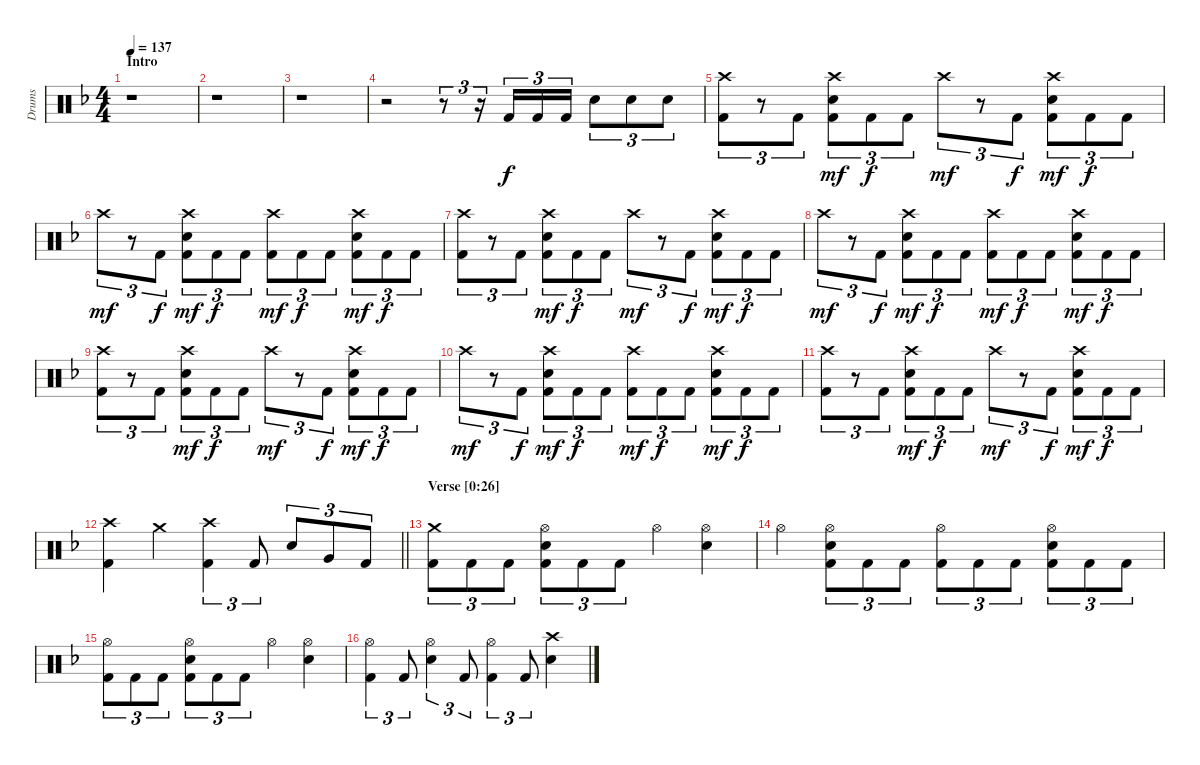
\track ("Drums" "Drums") {instrument percussion}
\staff {score}
\articulation defaults
\ts (4 4)
\section ("" "Intro")
\tempo 137
\clef neutral
\ks dminor
r.1{dy f} |
r.1 |
r.1 |
r.2 r.8{tu (3 2)} r.16{tu (3 2)} "Kick (hit) 2".16{tu (3 2)} "Kick (hit) 2".16{tu (3 2)} "Kick (hit) 2".16{tu (3 2)} "Snare (hit) 2".8{tu (3 2)} "Snare (hit) 2".8{tu (3 2)} "Snare (hit) 2".8{tu (3 2)} |
("Crash high (hit)" "Kick (hit) 2").8{tu (3 2)} r.8{tu (3 2)} "Kick (hit) 2".8{tu (3 2)} ("Crash high (hit)" "Snare (hit) 2" "Kick (hit) 2").8{tu (3 2) dy mf} "Kick (hit) 2".8{tu (3 2) dy f} "Kick (hit) 2".8{tu (3 2)} "Crash high (hit)".8{tu (3 2) dy mf} r.8{tu (3 2)} "Kick (hit) 2".8{tu (3 2) dy f} ("Crash high (hit)" "Snare (hit) 2" "Kick (hit) 2").8{tu (3 2) dy mf} "Kick (hit) 2".8{tu (3 2) dy f} "Kick (hit) 2".8{tu (3 2)} |
"Crash high (hit)".8{tu (3 2) dy mf} r.8{tu (3 2)} "Kick (hit) 2".8{tu (3 2) dy f} ("Crash high (hit)" "Snare (hit) 2" "Kick (hit) 2").8{tu (3 2) dy mf} "Kick (hit) 2".8{tu (3 2) dy f} "Kick (hit) 2".8{tu (3 2)} ("Crash high (hit)" "Kick (hit) 2").8{tu (3 2) dy mf} "Kick (hit) 2".8{tu (3 2) dy f} "Kick (hit) 2".8{tu (3 2)} ("Crash high (hit)" "Snare (hit) 2" "Kick (hit) 2").8{tu (3 2) dy mf} "Kick (hit) 2".8{tu (3 2) dy f} "Kick (hit) 2".8{tu (3 2)} |
("Crash high (hit)" "Kick (hit) 2").8{tu (3 2)} r.8{tu (3 2)} "Kick (hit) 2".8{tu (3 2)} ("Crash high (hit)" "Snare (hit) 2" "Kick (hit) 2").8{tu (3 2) dy mf} "Kick (hit) 2".8{tu (3 2) dy f} "Kick (hit) 2".8{tu (3 2)} "Crash high (hit)".8{tu (3 2) dy mf} r.8{tu (3 2)} "Kick (hit) 2".8{tu (3 2) dy f} ("Crash high (hit)" "Snare (hit) 2" "Kick (hit) 2").8{tu (3 2) dy mf} "Kick (hit) 2".8{tu (3 2) dy f} "Kick (hit) 2".8{tu (3 2)} |
"Crash high (hit)".8{tu (3 2) dy mf} r.8{tu (3 2)} "Kick (hit) 2".8{tu (3 2) dy f} ("Crash high (hit)" "Snare (hit) 2" "Kick (hit) 2").8{tu (3 2) dy mf} "Kick (hit) 2".8{tu (3 2) dy f} "Kick (hit) 2".8{tu (3 2)} ("Crash high (hit)" "Kick (hit) 2").8{tu (3 2) dy mf} "Kick (hit) 2".8{tu (3 2) dy f} "Kick (hit) 2".8{tu (3 2)} ("Crash high (hit)" "Snare (hit) 2" "Kick (hit) 2").8{tu (3 2) dy mf} "Kick (hit) 2".8{tu (3 2) dy f} "Kick (hit) 2".8{tu (3 2)} |
("Crash high (hit)" "Kick (hit) 2").8{tu (3 2)} r.8{tu (3 2)} "Kick (hit) 2".8{tu (3 2)} ("Crash high (hit)" "Snare (hit) 2" "Kick (hit) 2").8{tu (3 2) dy mf} "Kick (hit) 2".8{tu (3 2) dy f} "Kick (hit) 2".8{tu (3 2)} "Crash high (hit)".8{tu (3 2) dy mf} r.8{tu (3 2)} "Kick (hit) 2".8{tu (3 2) dy f} ("Crash high (hit)" "Snare (hit) 2" "Kick (hit) 2").8{tu (3 2) dy mf} "Kick (hit) 2".8{tu (3 2) dy f} "Kick (hit) 2".8{tu (3 2)} |
"Crash high (hit)".8{tu (3 2) dy mf} r.8{tu (3 2)} "Kick (hit) 2".8{tu (3 2) dy f} ("Crash high (hit)" "Snare (hit) 2" "Kick (hit) 2").8{tu (3 2) dy mf} "Kick (hit) 2".8{tu (3 2) dy f} "Kick (hit) 2".8{tu (3 2)} ("Crash high (hit)" "Kick (hit) 2").8{tu (3 2) dy mf} "Kick (hit) 2".8{tu (3 2) dy f} "Kick (hit) 2".8{tu (3 2)} ("Crash high (hit)" "Snare (hit) 2" "Kick (hit) 2").8{tu (3 2) dy mf} "Kick (hit) 2".8{tu (3 2) dy f} "Kick (hit) 2".8{tu (3 2)} |
("Crash high (hit)" "Kick (hit) 2").8{tu (3 2)} r.8{tu (3 2)} "Kick (hit) 2".8{tu (3 2)} ("Crash high (hit)" "Snare (hit) 2" "Kick (hit) 2").8{tu (3 2) dy mf} "Kick (hit) 2".8{tu (3 2) dy f} "Kick (hit) 2".8{tu (3 2)} "Crash high (hit)".8{tu (3 2) dy mf} r.8{tu (3 2)} "Kick (hit) 2".8{tu (3 2) dy f} ("Crash high (hit)" "Snare (hit) 2" "Kick (hit) 2").8{tu (3 2) dy mf} "Kick (hit) 2".8{tu (3 2) dy f} "Kick (hit) 2".8{tu (3 2)} |
\barLineRight lightlight
("Crash high (hit)" "Kick (hit) 2").4 "Crash medium (hit)".4 ("Crash high (hit)" "Kick (hit) 2").4{tu (3 2)} "Kick (hit) 2".8{tu (3 2)} "Snare (hit) 2".8{tu (3 2)} "Very Low Tom (hit)".8{tu (3 2)} "Kick (hit) 2".8{tu (3 2)} |
\section ("" "Verse [0:26]")
("Crash medium (hit)" "Kick (hit) 2").8{tu (3 2)} "Kick (hit) 2".8{tu (3 2)} "Kick (hit) 2".8{tu (3 2)} ("Hi-Hat (open)" "Snare (hit) 2" "Kick (hit) 2").8{tu (3 2)} "Kick (hit) 2".8{tu (3 2)} "Kick (hit) 2".8{tu (3 2)} "Hi-Hat (open)".4 ("Hi-Hat (open)" "Snare (hit) 2").4 |
"Hi-Hat (open)".4 ("Hi-Hat (open)" "Snare (hit) 2" "Kick (hit) 2").8{tu (3 2)} "Kick (hit) 2".8{tu (3 2)} "Kick (hit) 2".8{tu (3 2)} ("Hi-Hat (open)" "Kick (hit) 2").8{tu (3 2)} "Kick (hit) 2".8{tu (3 2)} "Kick (hit) 2".8{tu (3 2)} ("Hi-Hat (open)" "Snare (hit) 2" "Kick (hit) 2").8{tu (3 2)} "Kick (hit) 2".8{tu (3 2)} "Kick (hit) 2".8{tu (3 2)} |
("Hi-Hat (open)" "Kick (hit) 2").8{tu (3 2)} "Kick (hit) 2".8{tu (3 2)} "Kick (hit) 2".8{tu (3 2)} ("Hi-Hat (open)" "Snare (hit) 2" "Kick (hit) 2").8{tu (3 2)} "Kick (hit) 2".8{tu (3 2)} "Kick (hit) 2".8{tu (3 2)} "Hi-Hat (open)".4 ("Hi-Hat (open)" "Snare (hit) 2").4 |
("Hi-Hat (open)" "Kick (hit) 2").4{tu (3 2)} "Kick (hit) 2".8{tu (3 2)} ("Hi-Hat (open)" "Snare (hit) 2").4{tu (3 2)} "Kick (hit) 2".8{tu (3 2)} ("Hi-Hat (open)" "Kick (hit) 2").4{tu (3 2)} "Kick (hit) 2".8{tu (3 2)} ("Crash high (hit)" "Snare (hit) 2").4
